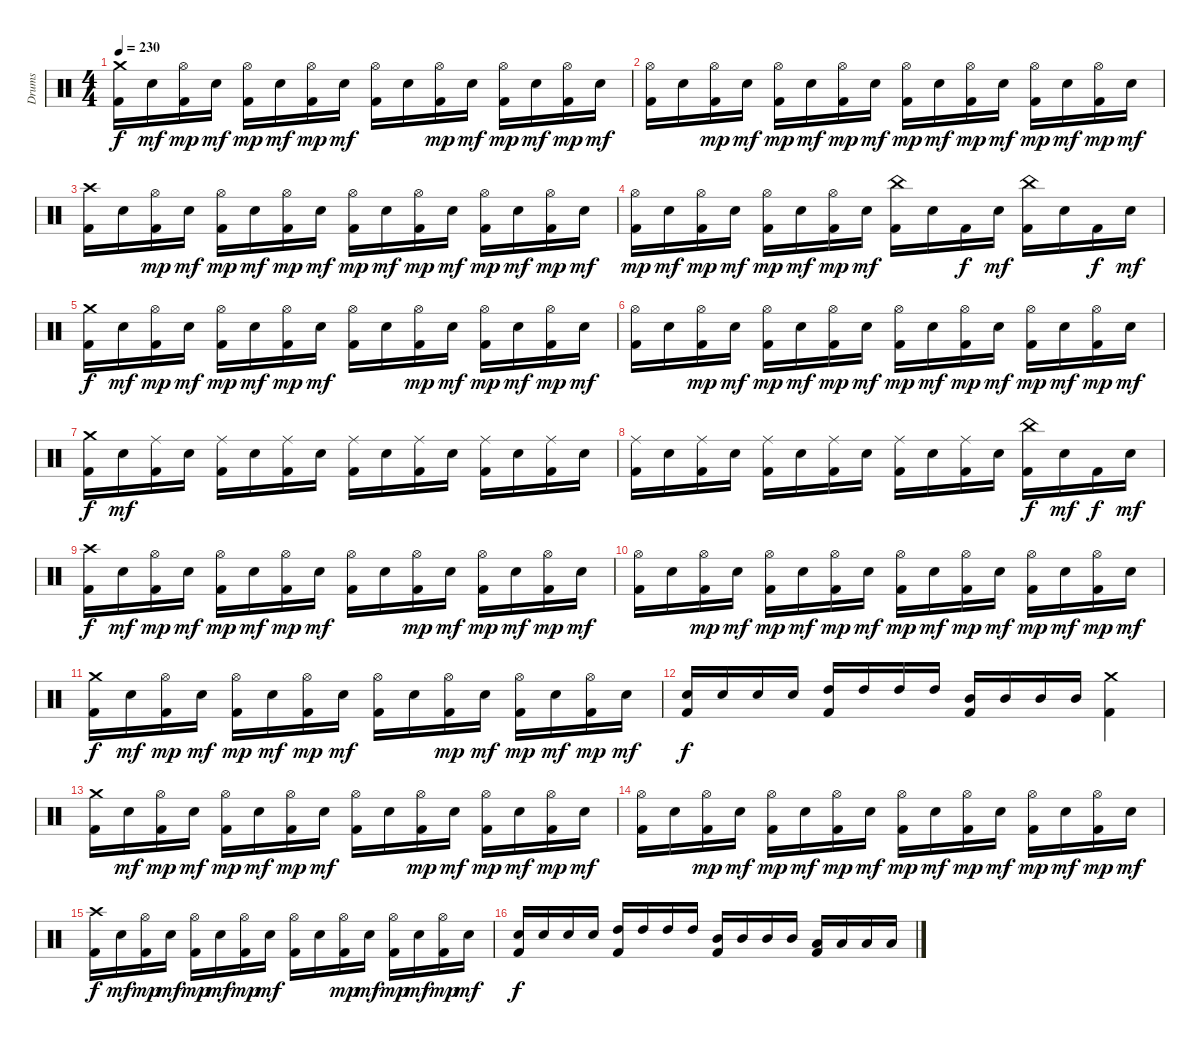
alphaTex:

\track ("Drums" "Drums") {instrument percussion}
\staff {score}
\articulation defaults
\ts (4 4)
\tempo 230
\clef neutral
\ks c
("Crash medium (hit)" "Kick (hit) 2").16{dy f} "Electric Snare (hit)".16{dy mf} ("Hi-Hat (open)" "Kick (hit) 2").16{dy mp} "Electric Snare (hit)".16{dy mf} ("Hi-Hat (open)" "Kick (hit) 2").16{dy mp} "Electric Snare (hit)".16{dy mf} ("Hi-Hat (open)" "Kick (hit) 2").16{dy mp} "Electric Snare (hit)".16{dy mf} ("Hi-Hat (open)" "Kick (hit) 2").16 "Electric Snare (hit)".16 ("Hi-Hat (open)" "Kick (hit) 2").16{dy mp} "Electric Snare (hit)".16{dy mf} ("Hi-Hat (open)" "Kick (hit) 2").16{dy mp} "Electric Snare (hit)".16{dy mf} ("Hi-Hat (open)" "Kick (hit) 2").16{dy mp} "Electric Snare (hit)".16{dy mf} |
("Hi-Hat (open)" "Kick (hit) 2").16 "Electric Snare (hit)".16 ("Hi-Hat (open)" "Kick (hit) 2").16{dy mp} "Electric Snare (hit)".16{dy mf} ("Hi-Hat (open)" "Kick (hit) 2").16{dy mp} "Electric Snare (hit)".16{dy mf} ("Hi-Hat (open)" "Kick (hit) 2").16{dy mp} "Electric Snare (hit)".16{dy mf} ("Hi-Hat (open)" "Kick (hit) 2").16{dy mp} "Electric Snare (hit)".16{dy mf} ("Hi-Hat (open)" "Kick (hit) 2").16{dy mp} "Electric Snare (hit)".16{dy mf} ("Hi-Hat (open)" "Kick (hit) 2").16{dy mp} "Electric Snare (hit)".16{dy mf} ("Hi-Hat (open)" "Kick (hit) 2").16{dy mp} "Electric Snare (hit)".16{dy mf} |
("Crash high (hit)" "Kick (hit) 2").16 "Electric Snare (hit)".16 ("Hi-Hat (open)" "Kick (hit) 2").16{dy mp} "Electric Snare (hit)".16{dy mf} ("Hi-Hat (open)" "Kick (hit) 2").16{dy mp} "Electric Snare (hit)".16{dy mf} ("Hi-Hat (open)" "Kick (hit) 2").16{dy mp} "Electric Snare (hit)".16{dy mf} ("Hi-Hat (open)" "Kick (hit) 2").16{dy mp} "Electric Snare (hit)".16{dy mf} ("Hi-Hat (open)" "Kick (hit) 2").16{dy mp} "Electric Snare (hit)".16{dy mf} ("Hi-Hat (open)" "Kick (hit) 2").16{dy mp} "Electric Snare (hit)".16{dy mf} ("Hi-Hat (open)" "Kick (hit) 2").16{dy mp} "Electric Snare (hit)".16{dy mf} |
("Hi-Hat (open)" "Kick (hit) 2").16{dy mp} "Electric Snare (hit)".16{dy mf} ("Hi-Hat (open)" "Kick (hit) 2").16{dy mp} "Electric Snare (hit)".16{dy mf} ("Hi-Hat (open)" "Kick (hit) 2").16{dy mp} "Electric Snare (hit)".16{dy mf} ("Hi-Hat (open)" "Kick (hit) 2").16{dy mp} "Electric Snare (hit)".16{dy mf} ("China (hit)" "Kick (hit) 2").16 "Electric Snare (hit)".16 "Kick (hit) 2".16{dy f} "Electric Snare (hit)".16{dy mf} ("China (hit)" "Kick (hit) 2").16 "Electric Snare (hit)".16 "Kick (hit) 2".16{dy f} "Electric Snare (hit)".16{dy mf} |
("Crash medium (hit)" "Kick (hit) 2").16{dy f} "Electric Snare (hit)".16{dy mf} ("Hi-Hat (open)" "Kick (hit) 2").16{dy mp} "Electric Snare (hit)".16{dy mf} ("Hi-Hat (open)" "Kick (hit) 2").16{dy mp} "Electric Snare (hit)".16{dy mf} ("Hi-Hat (open)" "Kick (hit) 2").16{dy mp} "Electric Snare (hit)".16{dy mf} ("Hi-Hat (open)" "Kick (hit) 2").16 "Electric Snare (hit)".16 ("Hi-Hat (open)" "Kick (hit) 2").16{dy mp} "Electric Snare (hit)".16{dy mf} ("Hi-Hat (open)" "Kick (hit) 2").16{dy mp} "Electric Snare (hit)".16{dy mf} ("Hi-Hat (open)" "Kick (hit) 2").16{dy mp} "Electric Snare (hit)".16{dy mf} |
("Hi-Hat (open)" "Kick (hit) 2").16 "Electric Snare (hit)".16 ("Hi-Hat (open)" "Kick (hit) 2").16{dy mp} "Electric Snare (hit)".16{dy mf} ("Hi-Hat (open)" "Kick (hit) 2").16{dy mp} "Electric Snare (hit)".16{dy mf} ("Hi-Hat (open)" "Kick (hit) 2").16{dy mp} "Electric Snare (hit)".16{dy mf} ("Hi-Hat (open)" "Kick (hit) 2").16{dy mp} "Electric Snare (hit)".16{dy mf} ("Hi-Hat (open)" "Kick (hit) 2").16{dy mp} "Electric Snare (hit)".16{dy mf} ("Hi-Hat (open)" "Kick (hit) 2").16{dy mp} "Electric Snare (hit)".16{dy mf} ("Hi-Hat (open)" "Kick (hit) 2").16{dy mp} "Electric Snare (hit)".16{dy mf} |
("Crash medium (hit)" "Kick (hit) 2").16{dy f} "Electric Snare (hit)".16{dy mf} ("Ride (middle)" "Kick (hit) 2").16 "Electric Snare (hit)".16 ("Ride (middle)" "Kick (hit) 2").16 "Electric Snare (hit)".16 ("Ride (middle)" "Kick (hit) 2").16 "Electric Snare (hit)".16 ("Ride (middle)" "Kick (hit) 2").16 "Electric Snare (hit)".16 ("Ride (middle)" "Kick (hit) 2").16 "Electric Snare (hit)".16 ("Ride (middle)" "Kick (hit) 2").16 "Electric Snare (hit)".16 ("Ride (middle)" "Kick (hit) 2").16 "Electric Snare (hit)".16 |
("Ride (middle)" "Kick (hit) 2").16 "Electric Snare (hit)".16 ("Ride (middle)" "Kick (hit) 2").16 "Electric Snare (hit)".16 ("Ride (middle)" "Kick (hit) 2").16 "Electric Snare (hit)".16 ("Ride (middle)" "Kick (hit) 2").16 "Electric Snare (hit)".16 ("Ride (middle)" "Kick (hit) 2").16 "Electric Snare (hit)".16 ("Ride (middle)" "Kick (hit) 2").16 "Electric Snare (hit)".16 ("China (hit)" "Kick (hit) 2").16{dy f} "Electric Snare (hit)".16{dy mf} "Kick (hit) 2".16{dy f} "Electric Snare (hit)".16{dy mf} |
("Crash high (hit)" "Kick (hit) 2").16{dy f} "Electric Snare (hit)".16{dy mf} ("Hi-Hat (open)" "Kick (hit) 2").16{dy mp} "Electric Snare (hit)".16{dy mf} ("Hi-Hat (open)" "Kick (hit) 2").16{dy mp} "Electric Snare (hit)".16{dy mf} ("Hi-Hat (open)" "Kick (hit) 2").16{dy mp} "Electric Snare (hit)".16{dy mf} ("Hi-Hat (open)" "Kick (hit) 2").16 "Electric Snare (hit)".16 ("Hi-Hat (open)" "Kick (hit) 2").16{dy mp} "Electric Snare (hit)".16{dy mf} ("Hi-Hat (open)" "Kick (hit) 2").16{dy mp} "Electric Snare (hit)".16{dy mf} ("Hi-Hat (open)" "Kick (hit) 2").16{dy mp} "Electric Snare (hit)".16{dy mf} |
("Hi-Hat (open)" "Kick (hit) 2").16 "Electric Snare (hit)".16 ("Hi-Hat (open)" "Kick (hit) 2").16{dy mp} "Electric Snare (hit)".16{dy mf} ("Hi-Hat (open)" "Kick (hit) 2").16{dy mp} "Electric Snare (hit)".16{dy mf} ("Hi-Hat (open)" "Kick (hit) 2").16{dy mp} "Electric Snare (hit)".16{dy mf} ("Hi-Hat (open)" "Kick (hit) 2").16{dy mp} "Electric Snare (hit)".16{dy mf} ("Hi-Hat (open)" "Kick (hit) 2").16{dy mp} "Electric Snare (hit)".16{dy mf} ("Hi-Hat (open)" "Kick (hit) 2").16{dy mp} "Electric Snare (hit)".16{dy mf} ("Hi-Hat (open)" "Kick (hit) 2").16{dy mp} "Electric Snare (hit)".16{dy mf} |
("Crash medium (hit)" "Kick (hit) 2").16{dy f} "Electric Snare (hit)".16{dy mf} ("Hi-Hat (open)" "Kick (hit) 2").16{dy mp} "Electric Snare (hit)".16{dy mf} ("Hi-Hat (open)" "Kick (hit) 2").16{dy mp} "Electric Snare (hit)".16{dy mf} ("Hi-Hat (open)" "Kick (hit) 2").16{dy mp} "Electric Snare (hit)".16{dy mf} ("Hi-Hat (open)" "Kick (hit) 2").16 "Electric Snare (hit)".16 ("Hi-Hat (open)" "Kick (hit) 2").16{dy mp} "Electric Snare (hit)".16{dy mf} ("Hi-Hat (open)" "Kick (hit) 2").16{dy mp} "Electric Snare (hit)".16{dy mf} ("Hi-Hat (open)" "Kick (hit) 2").16{dy mp} "Electric Snare (hit)".16{dy mf} |
("Electric Snare (hit)" "Kick (hit) 2").16{dy f} "Electric Snare (hit)".16 "Electric Snare (hit)".16 "Electric Snare (hit)".16 ("High Tom (hit)" "Kick (hit) 2").16 "High Tom (hit)".16 "High Tom (hit)".16 "High Tom (hit)".16 ("Mid Tom (hit)" "Kick (hit) 2").16 "Mid Tom (hit)".16 "Mid Tom (hit)".16 "Mid Tom (hit)".16 ("Crash medium (hit)" "Kick (hit) 2").4 |
("Crash medium (hit)" "Kick (hit) 2").16 "Electric Snare (hit)".16{dy mf} ("Hi-Hat (open)" "Kick (hit) 2").16{dy mp} "Electric Snare (hit)".16{dy mf} ("Hi-Hat (open)" "Kick (hit) 2").16{dy mp} "Electric Snare (hit)".16{dy mf} ("Hi-Hat (open)" "Kick (hit) 2").16{dy mp} "Electric Snare (hit)".16{dy mf} ("Hi-Hat (open)" "Kick (hit) 2").16 "Electric Snare (hit)".16 ("Hi-Hat (open)" "Kick (hit) 2").16{dy mp} "Electric Snare (hit)".16{dy mf} ("Hi-Hat (open)" "Kick (hit) 2").16{dy mp} "Electric Snare (hit)".16{dy mf} ("Hi-Hat (open)" "Kick (hit) 2").16{dy mp} "Electric Snare (hit)".16{dy mf} |
("Hi-Hat (open)" "Kick (hit) 2").16 "Electric Snare (hit)".16 ("Hi-Hat (open)" "Kick (hit) 2").16{dy mp} "Electric Snare (hit)".16{dy mf} ("Hi-Hat (open)" "Kick (hit) 2").16{dy mp} "Electric Snare (hit)".16{dy mf} ("Hi-Hat (open)" "Kick (hit) 2").16{dy mp} "Electric Snare (hit)".16{dy mf} ("Hi-Hat (open)" "Kick (hit) 2").16{dy mp} "Electric Snare (hit)".16{dy mf} ("Hi-Hat (open)" "Kick (hit) 2").16{dy mp} "Electric Snare (hit)".16{dy mf} ("Hi-Hat (open)" "Kick (hit) 2").16{dy mp} "Electric Snare (hit)".16{dy mf} ("Hi-Hat (open)" "Kick (hit) 2").16{dy mp} "Electric Snare (hit)".16{dy mf} |
("Crash high (hit)" "Kick (hit) 2").16{dy f} "Electric Snare (hit)".16{dy mf} ("Hi-Hat (open)" "Kick (hit) 2").16{dy mp} "Electric Snare (hit)".16{dy mf} ("Hi-Hat (open)" "Kick (hit) 2").16{dy mp} "Electric Snare (hit)".16{dy mf} ("Hi-Hat (open)" "Kick (hit) 2").16{dy mp} "Electric Snare (hit)".16{dy mf} ("Hi-Hat (open)" "Kick (hit) 2").16 "Electric Snare (hit)".16 ("Hi-Hat (open)" "Kick (hit) 2").16{dy mp} "Electric Snare (hit)".16{dy mf} ("Hi-Hat (open)" "Kick (hit) 2").16{dy mp} "Electric Snare (hit)".16{dy mf} ("Hi-Hat (open)" "Kick (hit) 2").16{dy mp} "Electric Snare (hit)".16{dy mf} |
("Electric Snare (hit)" "Kick (hit) 2").16{dy f} "Electric Snare (hit)".16 "Electric Snare (hit)".16 "Electric Snare (hit)".16 ("High Tom (hit)" "Kick (hit) 2").16 "High Tom (hit)".16 "High Tom (hit)".16 "High Tom (hit)".16 ("Mid Tom (hit)" "Kick (hit) 2").16 "Mid Tom (hit)".16 "Mid Tom (hit)".16 "Mid Tom (hit)".16 ("Low Tom (hit)" "Kick (hit) 2").16 "Low Tom (hit)".16 "Low Tom (hit)".16 "Low Tom (hit)".16
